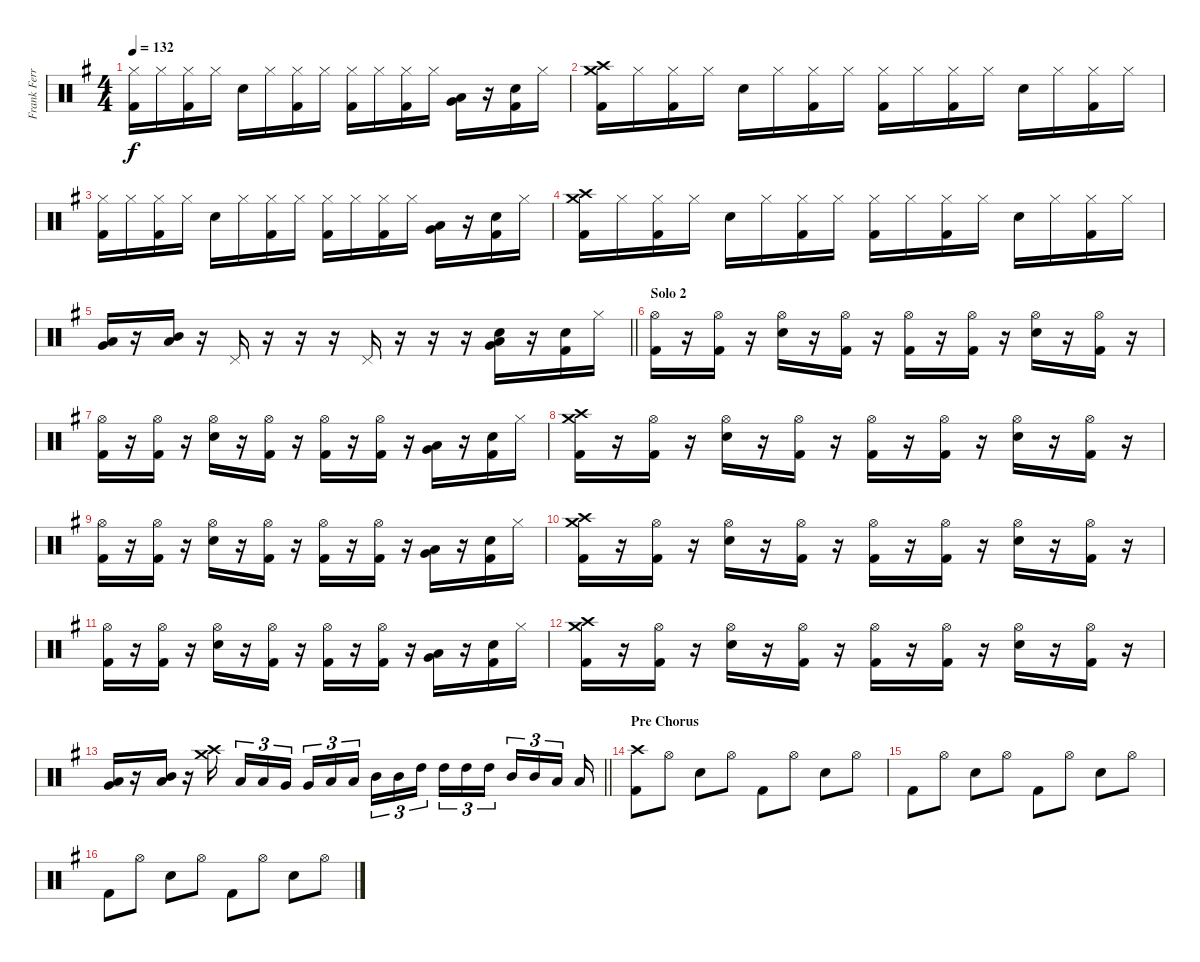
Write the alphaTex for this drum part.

\track ("Frank Ferrer" "Frank Ferr") {instrument percussion}
\staff {score}
\articulation defaults
\ts (4 4)
\tempo 132
\clef neutral
\ks g
("Hi-Hat (closed)" "Kick (hit) 2").16{dy f} "Hi-Hat (closed)".16 ("Hi-Hat (closed)" "Kick (hit) 2").16 "Hi-Hat (closed)".16 "Snare (hit) 2".16 "Hi-Hat (closed)".16 ("Hi-Hat (closed)" "Kick (hit) 2").16 "Hi-Hat (closed)".16 ("Hi-Hat (closed)" "Kick (hit) 2").16 "Hi-Hat (closed)".16 ("Hi-Hat (closed)" "Kick (hit) 2").16 "Hi-Hat (closed)".16 ("Low Tom (hit)" "Very Low Tom (hit)").16 r.16 ("Snare (hit) 2" "Kick (hit) 2").16 "Hi-Hat (closed)".16 |
("Crash high (hit)" "Crash medium (hit)" "Kick (hit) 2").16 "Hi-Hat (closed)".16 ("Hi-Hat (closed)" "Kick (hit) 2").16 "Hi-Hat (closed)".16 "Snare (hit) 2".16 "Hi-Hat (closed)".16 ("Hi-Hat (closed)" "Kick (hit) 2").16 "Hi-Hat (closed)".16 ("Hi-Hat (closed)" "Kick (hit) 2").16 "Hi-Hat (closed)".16 ("Hi-Hat (closed)" "Kick (hit) 2").16 "Hi-Hat (closed)".16 "Snare (hit) 2".16 "Hi-Hat (closed)".16 ("Hi-Hat (closed)" "Kick (hit) 2").16 "Hi-Hat (closed)".16 |
("Hi-Hat (closed)" "Kick (hit) 2").16 "Hi-Hat (closed)".16 ("Hi-Hat (closed)" "Kick (hit) 2").16 "Hi-Hat (closed)".16 "Snare (hit) 2".16 "Hi-Hat (closed)".16 ("Hi-Hat (closed)" "Kick (hit) 2").16 "Hi-Hat (closed)".16 ("Hi-Hat (closed)" "Kick (hit) 2").16 "Hi-Hat (closed)".16 ("Hi-Hat (closed)" "Kick (hit) 2").16 "Hi-Hat (closed)".16 ("Low Tom (hit)" "Very Low Tom (hit)").16 r.16 ("Snare (hit) 2" "Kick (hit) 2").16 "Hi-Hat (closed)".16 |
("Crash high (hit)" "Crash medium (hit)" "Kick (hit) 2").16 "Hi-Hat (closed)".16 ("Hi-Hat (closed)" "Kick (hit) 2").16 "Hi-Hat (closed)".16 "Snare (hit) 2".16 "Hi-Hat (closed)".16 ("Hi-Hat (closed)" "Kick (hit) 2").16 "Hi-Hat (closed)".16 ("Hi-Hat (closed)" "Kick (hit) 2").16 "Hi-Hat (closed)".16 ("Hi-Hat (closed)" "Kick (hit) 2").16 "Hi-Hat (closed)".16 "Snare (hit) 2".16 "Hi-Hat (closed)".16 ("Hi-Hat (closed)" "Kick (hit) 2").16 "Hi-Hat (closed)".16 |
\barLineRight lightlight
("Low Tom (hit)" "Very Low Tom (hit)").16 r.16 ("Mid Tom (hit)" "Low Tom (hit)").16 r.16 "Pedal Hi-Hat (hit)".16 r.16 r.16 r.16 "Pedal Hi-Hat (hit)".16 r.16 r.16 r.16 ("Snare (hit) 2" "Low Tom (hit)" "Very Low Tom (hit)").16 r.16 ("Snare (hit) 2" "Kick (hit) 2").16 "Hi-Hat (closed)".16 |
\section ("" "Solo 2")
("Hi-Hat (open)" "Kick (hit) 2").16 r.16 ("Hi-Hat (open)" "Kick (hit) 2").16 r.16 ("Hi-Hat (open)" "Snare (hit) 2").16 r.16 ("Hi-Hat (open)" "Kick (hit) 2").16 r.16 ("Hi-Hat (open)" "Kick (hit) 2").16 r.16 ("Hi-Hat (open)" "Kick (hit) 2").16 r.16 ("Hi-Hat (open)" "Snare (hit) 2").16 r.16 ("Hi-Hat (open)" "Kick (hit) 2").16 r.16 |
("Hi-Hat (open)" "Kick (hit) 2").16 r.16 ("Hi-Hat (open)" "Kick (hit) 2").16 r.16 ("Hi-Hat (open)" "Snare (hit) 2").16 r.16 ("Hi-Hat (open)" "Kick (hit) 2").16 r.16 ("Hi-Hat (open)" "Kick (hit) 2").16 r.16 ("Hi-Hat (open)" "Kick (hit) 2").16 r.16 ("Low Tom (hit)" "Very Low Tom (hit)").16 r.16 ("Snare (hit) 2" "Kick (hit) 2").16 "Hi-Hat (closed)".16 |
("Crash high (hit)" "Crash medium (hit)" "Kick (hit) 2").16 r.16 ("Hi-Hat (open)" "Kick (hit) 2").16 r.16 ("Hi-Hat (open)" "Snare (hit) 2").16 r.16 ("Hi-Hat (open)" "Kick (hit) 2").16 r.16 ("Hi-Hat (open)" "Kick (hit) 2").16 r.16 ("Hi-Hat (open)" "Kick (hit) 2").16 r.16 ("Hi-Hat (open)" "Snare (hit) 2").16 r.16 ("Hi-Hat (open)" "Kick (hit) 2").16 r.16 |
("Hi-Hat (open)" "Kick (hit) 2").16 r.16 ("Hi-Hat (open)" "Kick (hit) 2").16 r.16 ("Hi-Hat (open)" "Snare (hit) 2").16 r.16 ("Hi-Hat (open)" "Kick (hit) 2").16 r.16 ("Hi-Hat (open)" "Kick (hit) 2").16 r.16 ("Hi-Hat (open)" "Kick (hit) 2").16 r.16 ("Low Tom (hit)" "Very Low Tom (hit)").16 r.16 ("Snare (hit) 2" "Kick (hit) 2").16 "Hi-Hat (closed)".16 |
("Crash high (hit)" "Crash medium (hit)" "Kick (hit) 2").16 r.16 ("Hi-Hat (open)" "Kick (hit) 2").16 r.16 ("Hi-Hat (open)" "Snare (hit) 2").16 r.16 ("Hi-Hat (open)" "Kick (hit) 2").16 r.16 ("Hi-Hat (open)" "Kick (hit) 2").16 r.16 ("Hi-Hat (open)" "Kick (hit) 2").16 r.16 ("Hi-Hat (open)" "Snare (hit) 2").16 r.16 ("Hi-Hat (open)" "Kick (hit) 2").16 r.16 |
("Hi-Hat (open)" "Kick (hit) 2").16 r.16 ("Hi-Hat (open)" "Kick (hit) 2").16 r.16 ("Hi-Hat (open)" "Snare (hit) 2").16 r.16 ("Hi-Hat (open)" "Kick (hit) 2").16 r.16 ("Hi-Hat (open)" "Kick (hit) 2").16 r.16 ("Hi-Hat (open)" "Kick (hit) 2").16 r.16 ("Low Tom (hit)" "Very Low Tom (hit)").16 r.16 ("Snare (hit) 2" "Kick (hit) 2").16 "Hi-Hat (closed)".16 |
("Crash high (hit)" "Crash medium (hit)" "Kick (hit) 2").16 r.16 ("Hi-Hat (open)" "Kick (hit) 2").16 r.16 ("Hi-Hat (open)" "Snare (hit) 2").16 r.16 ("Hi-Hat (open)" "Kick (hit) 2").16 r.16 ("Hi-Hat (open)" "Kick (hit) 2").16 r.16 ("Hi-Hat (open)" "Kick (hit) 2").16 r.16 ("Hi-Hat (open)" "Snare (hit) 2").16 r.16 ("Hi-Hat (open)" "Kick (hit) 2").16 r.16 |
\barLineRight lightlight
("Low Tom (hit)" "Very Low Tom (hit)").16 r.16 ("Mid Tom (hit)" "Low Tom (hit)").16 r.16 ("Crash high (hit)" "Crash medium (hit)").16{beam splitsecondary} "Low Floor Tom (hit)".16{tu (3 2)} "Low Floor Tom (hit)".16{tu (3 2)} "Very Low Tom (hit)".16{tu (3 2) beam splitsecondary} "Very Low Tom (hit)".16{tu (3 2)} "Low Tom (hit)".16{tu (3 2)} "Low Tom (hit)".16{tu (3 2) beam splitsecondary} "Mid Tom (hit)".16{tu (3 2)} "Mid Tom (hit)".16{tu (3 2)} "High Tom (hit)".16{tu (3 2) beam splitsecondary} "High Tom (hit)".16{tu (3 2)} "High Tom (hit)".16{tu (3 2)} "High Tom (hit)".16{tu (3 2) beam splitsecondary} "Mid Tom (hit)".16{tu (3 2)} "Mid Tom (hit)".16{tu (3 2)} "Low Tom (hit)".16{tu (3 2) beam splitsecondary} "Low Tom (hit)".16 |
\section ("" "Pre Chorus")
("Crash high (hit)" "Kick (hit) 2").8 "Hi-Hat (open)".8 "Electric Snare (hit)".8 "Hi-Hat (open)".8 "Kick (hit) 2".8 "Hi-Hat (open)".8 "Electric Snare (hit)".8 "Hi-Hat (open)".8 |
"Kick (hit) 2".8 "Hi-Hat (open)".8 "Electric Snare (hit)".8 "Hi-Hat (open)".8 "Kick (hit) 2".8 "Hi-Hat (open)".8 "Electric Snare (hit)".8 "Hi-Hat (open)".8 |
"Kick (hit) 2".8 "Hi-Hat (open)".8 "Electric Snare (hit)".8 "Hi-Hat (open)".8 "Kick (hit) 2".8 "Hi-Hat (open)".8 "Electric Snare (hit)".8 "Hi-Hat (open)".8
